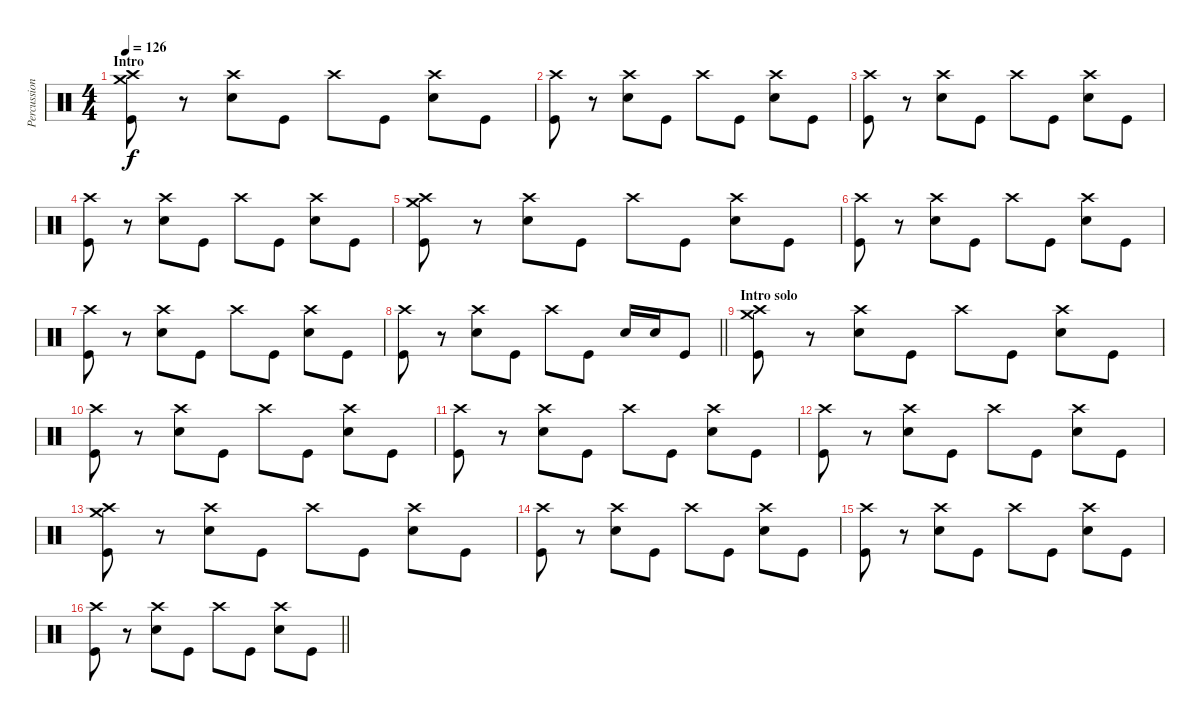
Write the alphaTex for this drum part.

\track ("Percussion" "Percussion") {instrument percussion}
\staff {score}
\articulation defaults
\ts (4 4)
\section ("" "Intro")
\tempo 126
\clef neutral
\ks c
("Crash high (hit)" "Crash medium (hit)" "Kick (hit)").8{dy f} r.8 ("Crash high (hit)" "Snare (hit) 2").8 "Kick (hit)".8 "Crash high (hit)".8 "Kick (hit)".8 ("Crash high (hit)" "Snare (hit) 2").8 "Kick (hit)".8 |
("Crash high (hit)" "Kick (hit)").8 r.8 ("Crash high (hit)" "Snare (hit) 2").8 "Kick (hit)".8 "Crash high (hit)".8 "Kick (hit)".8 ("Crash high (hit)" "Snare (hit) 2").8 "Kick (hit)".8 |
("Crash high (hit)" "Kick (hit)").8 r.8 ("Crash high (hit)" "Snare (hit) 2").8 "Kick (hit)".8 "Crash high (hit)".8 "Kick (hit)".8 ("Crash high (hit)" "Snare (hit) 2").8 "Kick (hit)".8 |
("Crash high (hit)" "Kick (hit)").8 r.8 ("Crash high (hit)" "Snare (hit) 2").8 "Kick (hit)".8 "Crash high (hit)".8 "Kick (hit)".8 ("Crash high (hit)" "Snare (hit) 2").8 "Kick (hit)".8 |
("Crash high (hit)" "Crash medium (hit)" "Kick (hit)").8 r.8 ("Crash high (hit)" "Snare (hit) 2").8 "Kick (hit)".8 "Crash high (hit)".8 "Kick (hit)".8 ("Crash high (hit)" "Snare (hit) 2").8 "Kick (hit)".8 |
("Crash high (hit)" "Kick (hit)").8 r.8 ("Crash high (hit)" "Snare (hit) 2").8 "Kick (hit)".8 "Crash high (hit)".8 "Kick (hit)".8 ("Crash high (hit)" "Snare (hit) 2").8 "Kick (hit)".8 |
("Crash high (hit)" "Kick (hit)").8 r.8 ("Crash high (hit)" "Snare (hit) 2").8 "Kick (hit)".8 "Crash high (hit)".8 "Kick (hit)".8 ("Crash high (hit)" "Snare (hit) 2").8 "Kick (hit)".8 |
\barLineRight lightlight
("Crash high (hit)" "Kick (hit)").8 r.8 ("Crash high (hit)" "Snare (hit) 2").8 "Kick (hit)".8 "Crash high (hit)".8 "Kick (hit)".8 "Snare (hit) 2".16 "Snare (hit) 2".16 "Kick (hit)".8 |
\section ("" "Intro solo")
("Crash high (hit)" "Crash medium (hit)" "Kick (hit)").8 r.8 ("Crash high (hit)" "Snare (hit) 2").8 "Kick (hit)".8 "Crash high (hit)".8 "Kick (hit)".8 ("Crash high (hit)" "Snare (hit) 2").8 "Kick (hit)".8 |
("Crash high (hit)" "Kick (hit)").8 r.8 ("Crash high (hit)" "Snare (hit) 2").8 "Kick (hit)".8 "Crash high (hit)".8 "Kick (hit)".8 ("Crash high (hit)" "Snare (hit) 2").8 "Kick (hit)".8 |
("Crash high (hit)" "Kick (hit)").8 r.8 ("Crash high (hit)" "Snare (hit) 2").8 "Kick (hit)".8 "Crash high (hit)".8 "Kick (hit)".8 ("Crash high (hit)" "Snare (hit) 2").8 "Kick (hit)".8 |
("Crash high (hit)" "Kick (hit)").8 r.8 ("Crash high (hit)" "Snare (hit) 2").8 "Kick (hit)".8 "Crash high (hit)".8 "Kick (hit)".8 ("Crash high (hit)" "Snare (hit) 2").8 "Kick (hit)".8 |
("Crash high (hit)" "Crash medium (hit)" "Kick (hit)").8 r.8 ("Crash high (hit)" "Snare (hit) 2").8 "Kick (hit)".8 "Crash high (hit)".8 "Kick (hit)".8 ("Crash high (hit)" "Snare (hit) 2").8 "Kick (hit)".8 |
("Crash high (hit)" "Kick (hit)").8 r.8 ("Crash high (hit)" "Snare (hit) 2").8 "Kick (hit)".8 "Crash high (hit)".8 "Kick (hit)".8 ("Crash high (hit)" "Snare (hit) 2").8 "Kick (hit)".8 |
("Crash high (hit)" "Kick (hit)").8 r.8 ("Crash high (hit)" "Snare (hit) 2").8 "Kick (hit)".8 "Crash high (hit)".8 "Kick (hit)".8 ("Crash high (hit)" "Snare (hit) 2").8 "Kick (hit)".8 |
\barLineRight lightlight
("Crash high (hit)" "Kick (hit)").8 r.8 ("Crash high (hit)" "Snare (hit) 2").8 "Kick (hit)".8 "Crash high (hit)".8 "Kick (hit)".8 ("Crash high (hit)" "Snare (hit) 2").8 "Kick (hit)".8
